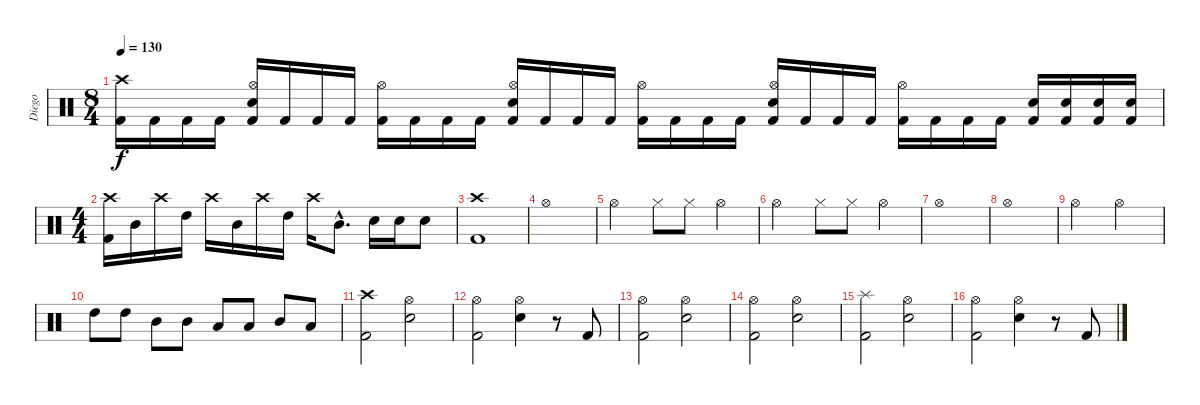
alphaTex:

\track ("Diego" "Diego") {instrument percussion}
\staff {score}
\articulation defaults
\ts (8 4)
\tempo 130
\clef neutral
\ks c
("Crash high (hit)" "Kick (hit) 2").16{dy f} "Kick (hit) 2".16 "Kick (hit) 2".16 "Kick (hit) 2".16 ("Hi-Hat (open)" "Electric Snare (hit)" "Kick (hit) 2").16 "Kick (hit) 2".16 "Kick (hit) 2".16 "Kick (hit) 2".16 ("Hi-Hat (open)" "Kick (hit) 2").16 "Kick (hit) 2".16 "Kick (hit) 2".16 "Kick (hit) 2".16 ("Hi-Hat (open)" "Electric Snare (hit)" "Kick (hit) 2").16 "Kick (hit) 2".16 "Kick (hit) 2".16 "Kick (hit) 2".16 ("Hi-Hat (open)" "Kick (hit) 2").16 "Kick (hit) 2".16 "Kick (hit) 2".16 "Kick (hit) 2".16 ("Hi-Hat (open)" "Electric Snare (hit)" "Kick (hit) 2").16 "Kick (hit) 2".16 "Kick (hit) 2".16 "Kick (hit) 2".16 ("Hi-Hat (open)" "Kick (hit) 2").16 "Kick (hit) 2".16 "Kick (hit) 2".16 "Kick (hit) 2".16 ("Electric Snare (hit)" "Kick (hit) 2").16 ("Electric Snare (hit)" "Kick (hit) 2").16 ("Electric Snare (hit)" "Kick (hit) 2").16 ("Electric Snare (hit)" "Kick (hit) 2").16 |
\ts (4 4)
("Crash high (hit)" "Kick (hit) 2").16 "Mid Tom (hit)".16 "Crash high (hit)".16 "High Tom (hit)".16 "Crash high (hit)".16 "Mid Tom (hit)".16 "Crash high (hit)".16 "High Tom (hit)".16 "Crash high (hit)".16 "Mid Tom (hit)"{hac}.8{d} "Electric Snare (hit)".16 "Electric Snare (hit)".16 "Electric Snare (hit)".8 |
("Crash high (hit)" "Kick (hit) 2").1 |
"Hi-Hat (open)".1 |
"Hi-Hat (open)".2 "Hi-Hat (closed)".8 "Hi-Hat (closed)".8 "Hi-Hat (open)".4 |
"Hi-Hat (open)".2 "Hi-Hat (closed)".8 "Hi-Hat (closed)".8 "Hi-Hat (open)".4 |
"Hi-Hat (open)".1 |
"Hi-Hat (open)".1 |
"Hi-Hat (open)".2 "Hi-Hat (open)".2 |
"High Tom (hit)".8 "High Tom (hit)".8 "Mid Tom (hit)".8 "Mid Tom (hit)".8 "Low Tom (hit)".8 "Low Tom (hit)".8 "Mid Tom (hit)".8 "Low Tom (hit)".8 |
("Crash high (hit)" "Kick (hit) 2").2 ("Hi-Hat (open)" "Electric Snare (hit)").2 |
("Hi-Hat (open)" "Kick (hit) 2").2 ("Hi-Hat (open)" "Electric Snare (hit)").4 r.8 "Kick (hit) 2".8 |
("Hi-Hat (open)" "Kick (hit) 2").2 ("Hi-Hat (open)" "Electric Snare (hit)").2 |
("Hi-Hat (open)" "Kick (hit) 2").2 ("Hi-Hat (open)" "Electric Snare (hit)").2 |
("Splash (hit)" "Kick (hit) 2").2 ("Hi-Hat (open)" "Electric Snare (hit)").2 |
("Hi-Hat (open)" "Kick (hit) 2").2 ("Hi-Hat (open)" "Electric Snare (hit)").4 r.8 "Kick (hit) 2".8
